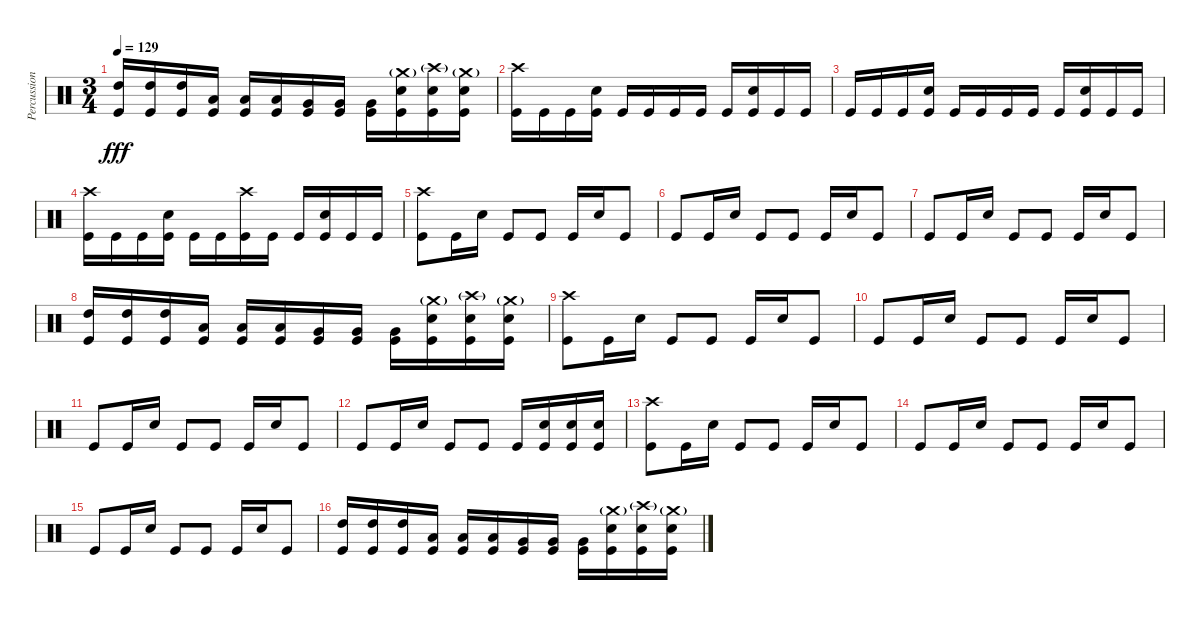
\track ("Percussion" "Percussion") {instrument percussion}
\staff {score}
\articulation defaults
\ts (3 4)
\tempo 129
\clef neutral
\ks c
("High Tom (hit)" "Kick (hit)").16{dy fff} ("High Tom (hit)" "Kick (hit)").16 ("High Tom (hit)" "Kick (hit)").16 ("Low Tom (hit)" "Kick (hit)").16 ("Low Tom (hit)" "Kick (hit)").16 ("Low Tom (hit)" "Kick (hit)").16 ("Very Low Tom (hit)" "Kick (hit)").16 ("Very Low Tom (hit)" "Kick (hit)").16 ("Very Low Tom (hit)" "Kick (hit)").16 ("Snare (hit) 2" "Crash medium (hit)"{g} "Kick (hit)").16 ("Snare (hit) 2" "Crash high (hit)"{g} "Kick (hit)").16 ("Snare (hit) 2" "Crash medium (hit)"{g} "Kick (hit)").16 |
("Crash high (hit)" "Kick (hit)").16 "Kick (hit)".16 "Kick (hit)".16 ("Snare (hit) 2" "Kick (hit)").16 "Kick (hit)".16 "Kick (hit)".16 "Kick (hit)".16 "Kick (hit)".16 "Kick (hit)".16 ("Snare (hit) 2" "Kick (hit)").16 "Kick (hit)".16 "Kick (hit)".16 |
"Kick (hit)".16 "Kick (hit)".16 "Kick (hit)".16 ("Snare (hit) 2" "Kick (hit)").16 "Kick (hit)".16 "Kick (hit)".16 "Kick (hit)".16 "Kick (hit)".16 "Kick (hit)".16 ("Snare (hit) 2" "Kick (hit)").16 "Kick (hit)".16 "Kick (hit)".16 |
("Crash high (hit)" "Kick (hit)").16 "Kick (hit)".16 "Kick (hit)".16 ("Snare (hit) 2" "Kick (hit)").16 "Kick (hit)".16 "Kick (hit)".16 ("Crash high (hit)" "Kick (hit)").16 "Kick (hit)".16 "Kick (hit)".16 ("Snare (hit) 2" "Kick (hit)").16 "Kick (hit)".16 "Kick (hit)".16 |
("Crash high (hit)" "Kick (hit)").8 "Kick (hit)".16 "Snare (hit) 2".16 "Kick (hit)".8 "Kick (hit)".8 "Kick (hit)".16 "Snare (hit) 2".16 "Kick (hit)".8 |
"Kick (hit)".8 "Kick (hit)".16 "Snare (hit) 2".16 "Kick (hit)".8 "Kick (hit)".8 "Kick (hit)".16 "Snare (hit) 2".16 "Kick (hit)".8 |
"Kick (hit)".8 "Kick (hit)".16 "Snare (hit) 2".16 "Kick (hit)".8 "Kick (hit)".8 "Kick (hit)".16 "Snare (hit) 2".16 "Kick (hit)".8 |
("High Tom (hit)" "Kick (hit)").16 ("High Tom (hit)" "Kick (hit)").16 ("High Tom (hit)" "Kick (hit)").16 ("Low Tom (hit)" "Kick (hit)").16 ("Low Tom (hit)" "Kick (hit)").16 ("Low Tom (hit)" "Kick (hit)").16 ("Very Low Tom (hit)" "Kick (hit)").16 ("Very Low Tom (hit)" "Kick (hit)").16 ("Very Low Tom (hit)" "Kick (hit)").16 ("Snare (hit) 2" "Crash medium (hit)"{g} "Kick (hit)").16 ("Snare (hit) 2" "Crash high (hit)"{g} "Kick (hit)").16 ("Snare (hit) 2" "Crash medium (hit)"{g} "Kick (hit)").16 |
("Crash high (hit)" "Kick (hit)").8 "Kick (hit)".16 "Snare (hit) 2".16 "Kick (hit)".8 "Kick (hit)".8 "Kick (hit)".16 "Snare (hit) 2".16 "Kick (hit)".8 |
"Kick (hit)".8 "Kick (hit)".16 "Snare (hit) 2".16 "Kick (hit)".8 "Kick (hit)".8 "Kick (hit)".16 "Snare (hit) 2".16 "Kick (hit)".8 |
"Kick (hit)".8 "Kick (hit)".16 "Snare (hit) 2".16 "Kick (hit)".8 "Kick (hit)".8 "Kick (hit)".16 "Snare (hit) 2".16 "Kick (hit)".8 |
"Kick (hit)".8 "Kick (hit)".16 "Snare (hit) 2".16 "Kick (hit)".8 "Kick (hit)".8 "Kick (hit)".16 ("Snare (hit) 2" "Kick (hit)").16 ("Snare (hit) 2" "Kick (hit)").16 ("Snare (hit) 2" "Kick (hit)").16 |
("Crash high (hit)" "Kick (hit)").8 "Kick (hit)".16 "Snare (hit) 2".16 "Kick (hit)".8 "Kick (hit)".8 "Kick (hit)".16 "Snare (hit) 2".16 "Kick (hit)".8 |
"Kick (hit)".8 "Kick (hit)".16 "Snare (hit) 2".16 "Kick (hit)".8 "Kick (hit)".8 "Kick (hit)".16 "Snare (hit) 2".16 "Kick (hit)".8 |
"Kick (hit)".8 "Kick (hit)".16 "Snare (hit) 2".16 "Kick (hit)".8 "Kick (hit)".8 "Kick (hit)".16 "Snare (hit) 2".16 "Kick (hit)".8 |
("High Tom (hit)" "Kick (hit)").16 ("High Tom (hit)" "Kick (hit)").16 ("High Tom (hit)" "Kick (hit)").16 ("Low Tom (hit)" "Kick (hit)").16 ("Low Tom (hit)" "Kick (hit)").16 ("Low Tom (hit)" "Kick (hit)").16 ("Very Low Tom (hit)" "Kick (hit)").16 ("Very Low Tom (hit)" "Kick (hit)").16 ("Very Low Tom (hit)" "Kick (hit)").16 ("Snare (hit) 2" "Crash medium (hit)"{g} "Kick (hit)").16 ("Snare (hit) 2" "Crash high (hit)"{g} "Kick (hit)").16 ("Snare (hit) 2" "Crash medium (hit)"{g} "Kick (hit)").16
